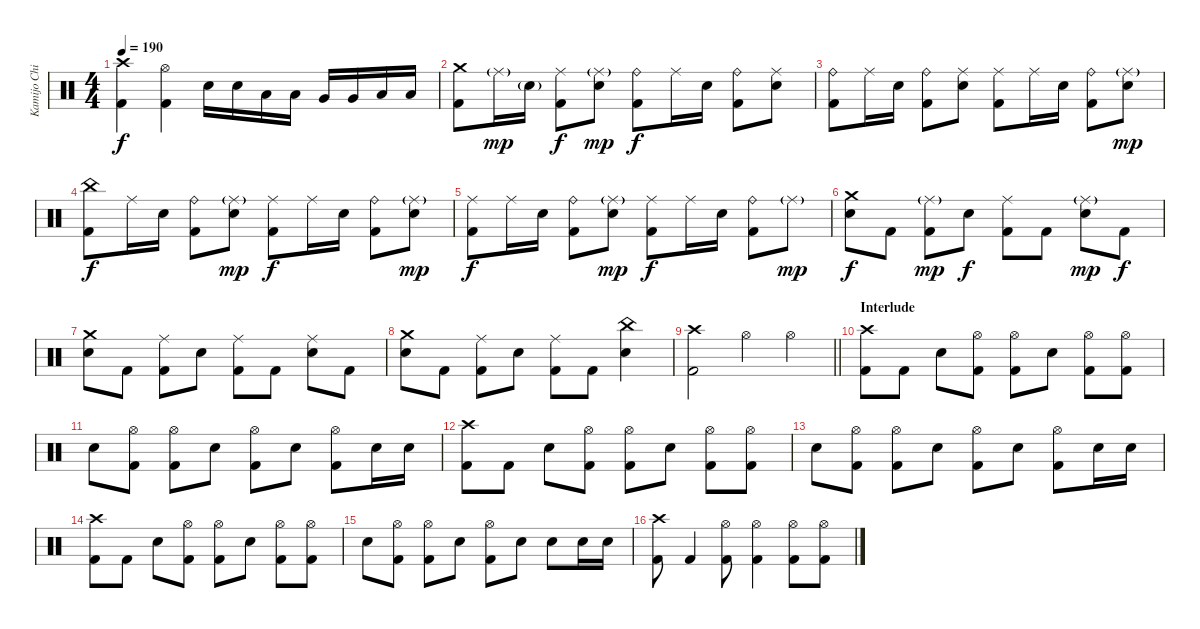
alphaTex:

\track ("Kamijo Chihiro" "Kamijo Chi") {instrument percussion}
\staff {score}
\articulation defaults
\ts (4 4)
\tempo 190
\clef neutral
\ks c
("Crash high (hit)" "Kick (hit) 2").4{dy f} ("Hi-Hat (open)" "Kick (hit) 2").4 "Snare (hit) 2".16 "Snare (hit) 2".16 "Low Tom (hit)".16 "Low Tom (hit)".16 "Very Low Tom (hit)".16 "Very Low Tom (hit)".16 "Low Floor Tom (hit)".16 "Low Floor Tom (hit)".16 |
("Crash medium (hit)" "Kick (hit) 2").8 "Ride (middle)"{g}.16{dy mp} "Snare (hit) 2"{g}.16 ("Ride (middle)" "Kick (hit) 2").8{dy f} ("Ride (middle)"{g} "Snare (hit) 2").8{dy mp} ("Ride (bell)" "Kick (hit) 2").8{dy f} "Ride (middle)".16 "Snare (hit) 2".16 ("Ride (bell)" "Kick (hit) 2").8 ("Ride (middle)" "Snare (hit) 2").8 |
("Ride (bell)" "Kick (hit) 2").8 "Ride (middle)".16 "Snare (hit) 2".16 ("Ride (bell)" "Kick (hit) 2").8 ("Ride (middle)" "Snare (hit) 2").8 ("Ride (middle)" "Kick (hit) 2").8 "Ride (middle)".16 "Snare (hit) 2".16 ("Ride (bell)" "Kick (hit) 2").8 ("Ride (middle)"{g} "Snare (hit) 2").8{dy mp} |
("China (hit)" "Kick (hit) 2").8{dy f} "Ride (middle)".16 "Snare (hit) 2".16 ("Ride (bell)" "Kick (hit) 2").8 ("Ride (middle)"{g} "Snare (hit) 2").8{dy mp} ("Ride (middle)" "Kick (hit) 2").8{dy f} "Ride (middle)".16 "Snare (hit) 2".16 ("Ride (bell)" "Kick (hit) 2").8 ("Ride (middle)"{g} "Snare (hit) 2").8{dy mp} |
("Ride (middle)" "Kick (hit) 2").8{dy f} "Ride (middle)".16 "Snare (hit) 2".16 ("Ride (bell)" "Kick (hit) 2").8 ("Ride (middle)"{g} "Snare (hit) 2").8{dy mp} ("Ride (middle)" "Kick (hit) 2").8{dy f} "Ride (middle)".16 "Snare (hit) 2".16 ("Ride (bell)" "Kick (hit) 2").8 "Ride (middle)"{g}.8{dy mp} |
("Crash medium (hit)" "Snare (hit) 2").8{dy f} "Kick (hit) 2".8 ("Ride (middle)"{g} "Kick (hit) 2").8{dy mp} "Snare (hit) 2".8{dy f} ("Ride (middle)" "Kick (hit) 2").8 "Kick (hit) 2".8 ("Ride (middle)"{g} "Snare (hit) 2").8{dy mp} "Kick (hit) 2".8{dy f} |
("Crash medium (hit)" "Snare (hit) 2").8 "Kick (hit) 2".8 ("Ride (middle)" "Kick (hit) 2").8 "Snare (hit) 2".8 ("Ride (middle)" "Kick (hit) 2").8 "Kick (hit) 2".8 ("Ride (middle)" "Snare (hit) 2").8 "Kick (hit) 2".8 |
("Crash medium (hit)" "Snare (hit) 2").8 "Kick (hit) 2".8 ("Ride (middle)" "Kick (hit) 2").8 "Snare (hit) 2".8 ("Ride (middle)" "Kick (hit) 2").8 "Kick (hit) 2".8 ("China (hit)" "Snare (hit) 2").4 |
\barLineRight lightlight
("Crash high (hit)" "Kick (hit) 2").2 "Hi-Hat (open)".4 "Hi-Hat (open)".4 |
\section ("" "Interlude")
("Crash high (hit)" "Kick (hit) 2").8 "Kick (hit) 2".8 "Snare (hit) 2".8 ("Hi-Hat (open)" "Kick (hit) 2").8 ("Hi-Hat (open)" "Kick (hit) 2").8 "Snare (hit) 2".8 ("Hi-Hat (open)" "Kick (hit) 2").8 ("Hi-Hat (open)" "Kick (hit) 2").8 |
"Snare (hit) 2".8 ("Hi-Hat (open)" "Kick (hit) 2").8 ("Hi-Hat (open)" "Kick (hit) 2").8 "Snare (hit) 2".8 ("Hi-Hat (open)" "Kick (hit) 2").8 "Snare (hit) 2".8 ("Hi-Hat (open)" "Kick (hit) 2").8 "Snare (hit) 2".16 "Snare (hit) 2".16 |
("Crash high (hit)" "Kick (hit) 2").8 "Kick (hit) 2".8 "Snare (hit) 2".8 ("Hi-Hat (open)" "Kick (hit) 2").8 ("Hi-Hat (open)" "Kick (hit) 2").8 "Snare (hit) 2".8 ("Hi-Hat (open)" "Kick (hit) 2").8 ("Hi-Hat (open)" "Kick (hit) 2").8 |
"Snare (hit) 2".8 ("Hi-Hat (open)" "Kick (hit) 2").8 ("Hi-Hat (open)" "Kick (hit) 2").8 "Snare (hit) 2".8 ("Hi-Hat (open)" "Kick (hit) 2").8 "Snare (hit) 2".8 ("Hi-Hat (open)" "Kick (hit) 2").8 "Snare (hit) 2".16 "Snare (hit) 2".16 |
("Crash high (hit)" "Kick (hit) 2").8 "Kick (hit) 2".8 "Snare (hit) 2".8 ("Hi-Hat (open)" "Kick (hit) 2").8 ("Hi-Hat (open)" "Kick (hit) 2").8 "Snare (hit) 2".8 ("Hi-Hat (open)" "Kick (hit) 2").8 ("Hi-Hat (open)" "Kick (hit) 2").8 |
"Snare (hit) 2".8 ("Hi-Hat (open)" "Kick (hit) 2").8 ("Hi-Hat (open)" "Kick (hit) 2").8 "Snare (hit) 2".8 ("Hi-Hat (open)" "Kick (hit) 2").8 "Snare (hit) 2".8 "Snare (hit) 2".8 "Snare (hit) 2".16 "Snare (hit) 2".16 |
("Crash high (hit)" "Kick (hit) 2").8 "Kick (hit) 2".4 ("Hi-Hat (open)" "Kick (hit) 2").8 ("Hi-Hat (open)" "Kick (hit) 2").4 ("Hi-Hat (open)" "Kick (hit) 2").8 ("Hi-Hat (open)" "Kick (hit) 2").8
